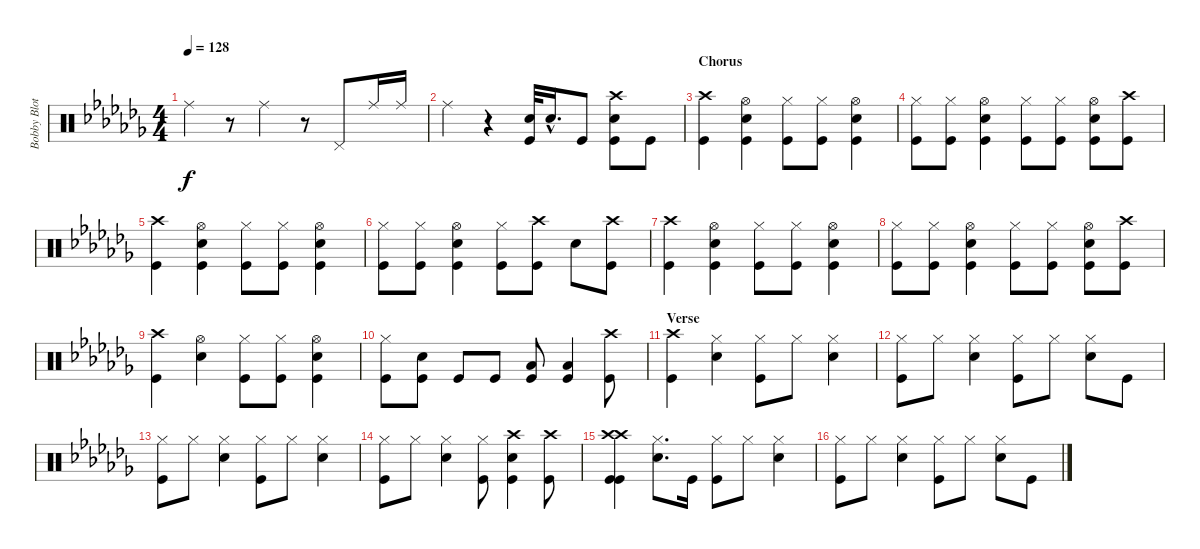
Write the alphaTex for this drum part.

\track ("Bobby Blotzer" "Bobby Blot") {instrument percussion}
\staff {score}
\articulation defaults
\ts (4 4)
\tempo 128
\clef neutral
\ks cb "Ride (middle)".4{dy f}
r.8 "Ride (middle)".4 r.8 "Pedal Hi-Hat (hit)".8 "Ride (middle)".16 "Ride (middle)".16 |
"Ride (middle)".4 r.4 ("Snare (hit) 2" "Kick (hit)").32 "Snare (hit) 2"{hac}.16{d} "Kick (hit)".8 ("Crash high (hit)" "Kick (hit)" "Snare (hit) 2").8 "Kick (hit)".8 |
\section ("" "Chorus")
("Kick (hit)" "Crash high (hit)").4 ("Kick (hit)" "Snare (hit) 2" "Hi-Hat (open)").4 ("Kick (hit)" "Hi-Hat (closed)").8 ("Hi-Hat (closed)" "Kick (hit)").8 ("Hi-Hat (open)" "Kick (hit)" "Snare (hit) 2").4 |
("Hi-Hat (closed)" "Kick (hit)").8 ("Hi-Hat (closed)" "Kick (hit)").8 ("Snare (hit) 2" "Kick (hit)" "Hi-Hat (open)").4 ("Hi-Hat (closed)" "Kick (hit)").8 ("Kick (hit)" "Hi-Hat (closed)").8 ("Kick (hit)" "Snare (hit) 2" "Hi-Hat (open)").8 ("Crash high (hit)" "Kick (hit)").8 |
("Kick (hit)" "Crash high (hit)").4 ("Hi-Hat (open)" "Snare (hit) 2" "Kick (hit)").4 ("Hi-Hat (closed)" "Kick (hit)").8 ("Kick (hit)" "Hi-Hat (closed)").8 ("Hi-Hat (open)" "Snare (hit) 2" "Kick (hit)").4 |
("Kick (hit)" "Hi-Hat (closed)").8 ("Kick (hit)" "Hi-Hat (closed)").8 ("Kick (hit)" "Hi-Hat (open)" "Snare (hit) 2").4 ("Hi-Hat (closed)" "Kick (hit)").8 ("Crash high (hit)" "Kick (hit)").8 "Snare (hit) 2".8 ("Kick (hit)" "Crash high (hit)").8 |
("Crash high (hit)" "Kick (hit)").4 ("Kick (hit)" "Snare (hit) 2" "Hi-Hat (open)").4 ("Hi-Hat (closed)" "Kick (hit)").8 ("Hi-Hat (closed)" "Kick (hit)").8 ("Hi-Hat (open)" "Kick (hit)" "Snare (hit) 2").4 |
("Hi-Hat (closed)" "Kick (hit)").8 ("Hi-Hat (closed)" "Kick (hit)").8 ("Hi-Hat (open)" "Kick (hit)" "Snare (hit) 2").4 ("Hi-Hat (closed)" "Kick (hit)").8 ("Hi-Hat (closed)" "Kick (hit)").8 ("Kick (hit)" "Hi-Hat (open)" "Snare (hit) 2").8 ("Crash high (hit)" "Kick (hit)").8 |
("Crash high (hit)" "Kick (hit)").4 ("Hi-Hat (open)" "Snare (hit) 2").4 ("Hi-Hat (closed)" "Kick (hit)").8 ("Hi-Hat (closed)" "Kick (hit)").8 ("Hi-Hat (open)" "Kick (hit)" "Snare (hit) 2").4 |
("Hi-Hat (closed)" "Kick (hit)").8 ("Snare (hit) 2" "Kick (hit)").8 "Kick (hit)".8 "Kick (hit)".8 ("Kick (hit)" "Low Tom (hit)").8 ("Kick (hit)" "Low Tom (hit)").4 ("Kick (hit)" "Crash high (hit)").8 |
\section ("" "Verse")
("Crash high (hit)" "Kick (hit)").4 ("Snare (hit) 2" "Hi-Hat (closed)").4 ("Hi-Hat (closed)" "Kick (hit)").8 "Hi-Hat (closed)".8 ("Hi-Hat (closed)" "Snare (hit) 2").4 |
("Kick (hit)" "Hi-Hat (closed)").8 "Hi-Hat (closed)".8 ("Hi-Hat (closed)" "Snare (hit) 2").4 ("Kick (hit)" "Hi-Hat (closed)").8 "Hi-Hat (closed)".8 ("Hi-Hat (closed)" "Snare (hit) 2").8 "Kick (hit)".8 |
("Hi-Hat (closed)" "Kick (hit)").8 "Hi-Hat (closed)".8 ("Hi-Hat (closed)" "Snare (hit) 2").4 ("Kick (hit)" "Hi-Hat (closed)").8 "Hi-Hat (closed)".8 ("Hi-Hat (closed)" "Snare (hit) 2").4 |
("Hi-Hat (closed)" "Kick (hit)").8 "Hi-Hat (closed)".8 ("Snare (hit) 2" "Hi-Hat (closed)").4 ("Hi-Hat (closed)" "Kick (hit)").8 ("Snare (hit) 2" "Crash high (hit)" "Kick (hit)").4 ("Kick (hit)" "Crash high (hit)").8 |
("Crash high (hit)" "Kick (hit)" "Crash high (hit)" "Kick (hit)").4 ("Snare (hit) 2" "Hi-Hat (closed)").8{d} "Kick (hit)".16 ("Hi-Hat (closed)" "Kick (hit)").8 "Hi-Hat (closed)".8 ("Hi-Hat (closed)" "Snare (hit) 2").4 |
("Kick (hit)" "Hi-Hat (closed)").8 "Hi-Hat (closed)".8 ("Hi-Hat (closed)" "Snare (hit) 2").4 ("Kick (hit)" "Hi-Hat (closed)").8 "Hi-Hat (closed)".8 ("Hi-Hat (closed)" "Snare (hit) 2").8 "Kick (hit)".8
